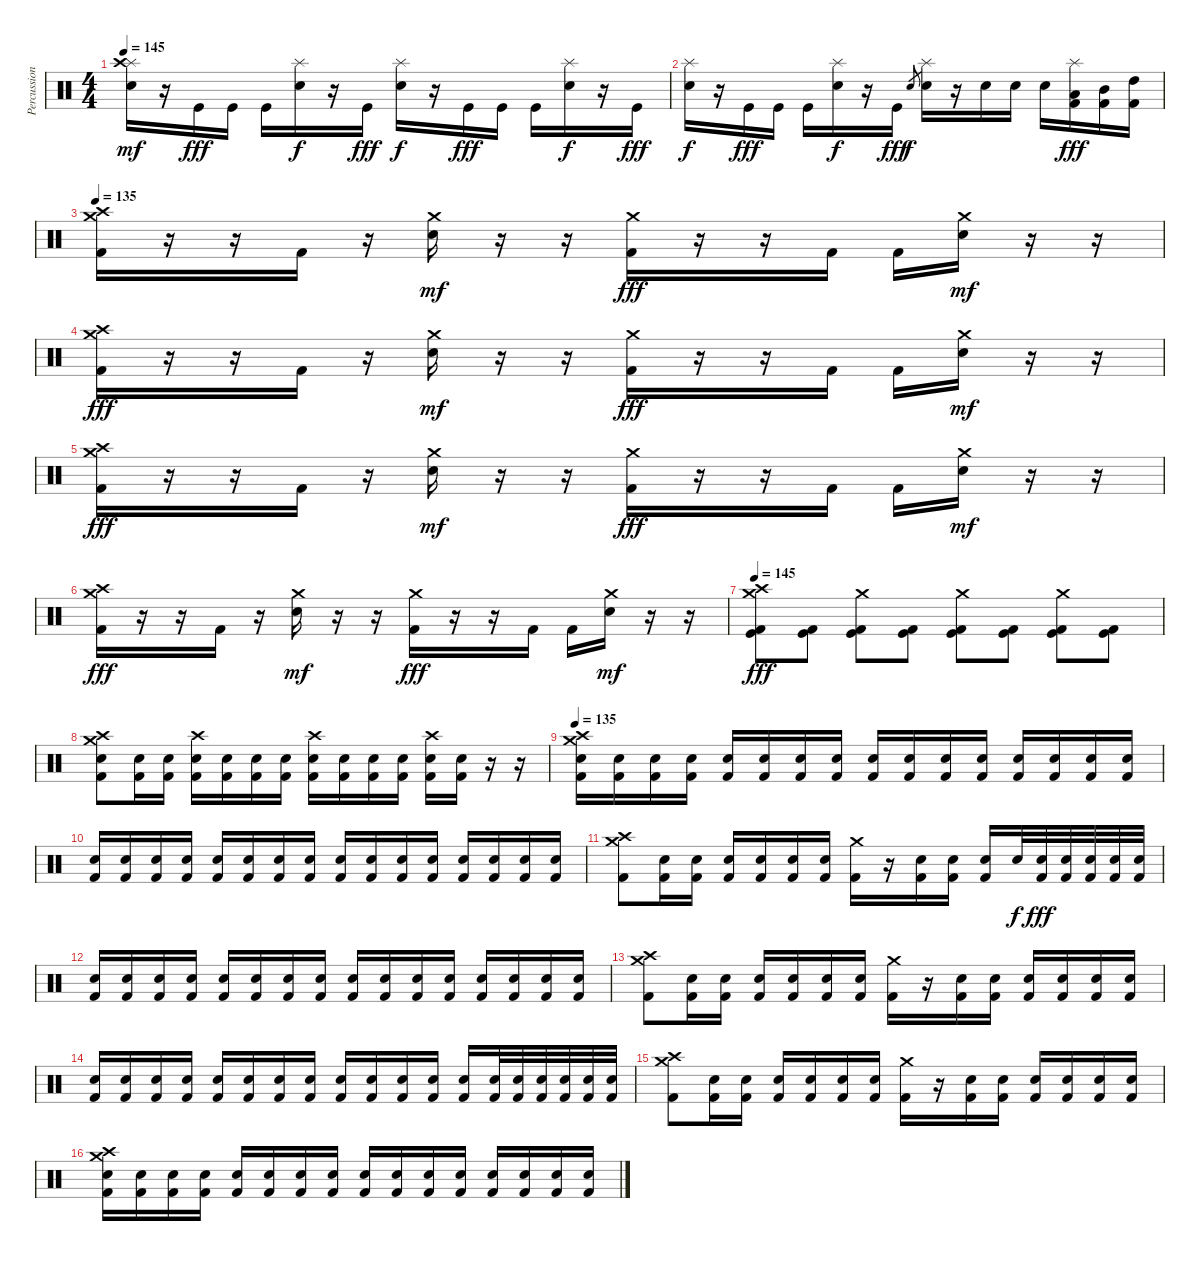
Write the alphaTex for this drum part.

\track ("Percussions" "Percussion") {instrument percussion}
\staff {score}
\articulation defaults
\ts (4 4)
\tempo 145
\clef neutral
\ks c
("Splash (hit)" "Crash high (hit)" "Electric Snare (hit)").16{dy mf} r.16 "Kick (hit)".16{dy fff} "Kick (hit)".16 "Kick (hit)".16 ("Splash (hit)" "Electric Snare (hit)").16{dy f} r.16 "Kick (hit)".16{dy fff} ("Splash (hit)" "Electric Snare (hit)").16{dy f} r.16 "Kick (hit)".16{dy fff} "Kick (hit)".16 "Kick (hit)".16 ("Splash (hit)" "Electric Snare (hit)").16{dy f} r.16 "Kick (hit)".16{dy fff} |
("Splash (hit)" "Electric Snare (hit)").16{dy f} r.16 "Kick (hit)".16{dy fff} "Kick (hit)".16 "Kick (hit)".16 ("Splash (hit)" "Electric Snare (hit)").16{dy f} r.16 "Kick (hit)".16{dy fff} "Electric Snare (hit)".8{gr dy f} ("Splash (hit)" "Electric Snare (hit)").16 r.16 "Electric Snare (hit)".16 "Electric Snare (hit)".16 "Electric Snare (hit)".16 ("Splash (hit)" "Low Tom (hit)" "Kick (hit) 2").16{dy fff} ("Mid Tom (hit)" "Kick (hit) 2").16 ("High Tom (hit)" "Kick (hit) 2").16 |
\tempo 135
("Crash medium (hit)" "Crash high (hit)" "Kick (hit) 2").16 r.16 r.16 "Kick (hit) 2".16 r.16 ("Crash medium (hit)" "Electric Snare (hit)").16{dy mf} r.16 r.16 ("Crash medium (hit)" "Kick (hit) 2").16{dy fff} r.16 r.16 "Kick (hit) 2".16 "Kick (hit) 2".16 ("Crash medium (hit)" "Electric Snare (hit)").16{dy mf} r.16 r.16 |
("Crash medium (hit)" "Crash high (hit)" "Kick (hit) 2").16{dy fff} r.16 r.16 "Kick (hit) 2".16 r.16 ("Crash medium (hit)" "Electric Snare (hit)").16{dy mf} r.16 r.16 ("Crash medium (hit)" "Kick (hit) 2").16{dy fff} r.16 r.16 "Kick (hit) 2".16 "Kick (hit) 2".16 ("Crash medium (hit)" "Electric Snare (hit)").16{dy mf} r.16 r.16 |
("Crash medium (hit)" "Crash high (hit)" "Kick (hit) 2").16{dy fff} r.16 r.16 "Kick (hit) 2".16 r.16 ("Crash medium (hit)" "Electric Snare (hit)").16{dy mf} r.16 r.16 ("Crash medium (hit)" "Kick (hit) 2").16{dy fff} r.16 r.16 "Kick (hit) 2".16 "Kick (hit) 2".16 ("Crash medium (hit)" "Electric Snare (hit)").16{dy mf} r.16 r.16 |
("Crash medium (hit)" "Crash high (hit)" "Kick (hit) 2").16{dy fff} r.16 r.16 "Kick (hit) 2".16 r.16 ("Crash medium (hit)" "Electric Snare (hit)").16{dy mf} r.16 r.16 ("Crash medium (hit)" "Kick (hit) 2").16{dy fff} r.16 r.16 "Kick (hit) 2".16 "Kick (hit) 2".16 ("Crash medium (hit)" "Electric Snare (hit)").16{dy mf} r.16 r.16 |
\tempo 145
("Crash high (hit)" "Crash medium (hit)" "Kick (hit)" "Kick (hit) 2").8{dy fff} ("Kick (hit)" "Kick (hit) 2").8 ("Crash medium (hit)" "Kick (hit)" "Kick (hit) 2").8 ("Kick (hit)" "Kick (hit) 2").8 ("Crash medium (hit)" "Kick (hit)" "Kick (hit) 2").8 ("Kick (hit)" "Kick (hit) 2").8 ("Crash medium (hit)" "Kick (hit)" "Kick (hit) 2").8 ("Kick (hit)" "Kick (hit) 2").8 |
("Crash high (hit)" "Crash medium (hit)" "Electric Snare (hit)" "Kick (hit) 2").8 ("Electric Snare (hit)" "Kick (hit) 2").16 ("Electric Snare (hit)" "Kick (hit) 2").16 ("Crash high (hit)" "Electric Snare (hit)" "Kick (hit) 2").16 ("Electric Snare (hit)" "Kick (hit) 2").16 ("Electric Snare (hit)" "Kick (hit) 2").16 ("Electric Snare (hit)" "Kick (hit) 2").16 ("Crash high (hit)" "Electric Snare (hit)" "Kick (hit) 2").16 ("Electric Snare (hit)" "Kick (hit) 2").16 ("Electric Snare (hit)" "Kick (hit) 2").16 ("Electric Snare (hit)" "Kick (hit) 2").16 ("Crash high (hit)" "Electric Snare (hit)" "Kick (hit) 2").16 ("Electric Snare (hit)" "Kick (hit) 2").16 r.16 r.16 |
\tempo 135
("Crash high (hit)" "Crash medium (hit)" "Electric Snare (hit)" "Kick (hit) 2").16 ("Electric Snare (hit)" "Kick (hit) 2").16 ("Electric Snare (hit)" "Kick (hit) 2").16 ("Electric Snare (hit)" "Kick (hit) 2").16 ("Electric Snare (hit)" "Kick (hit) 2").16 ("Electric Snare (hit)" "Kick (hit) 2").16 ("Electric Snare (hit)" "Kick (hit) 2").16 ("Electric Snare (hit)" "Kick (hit) 2").16 ("Electric Snare (hit)" "Kick (hit) 2").16 ("Electric Snare (hit)" "Kick (hit) 2").16 ("Electric Snare (hit)" "Kick (hit) 2").16 ("Electric Snare (hit)" "Kick (hit) 2").16 ("Electric Snare (hit)" "Kick (hit) 2").16 ("Electric Snare (hit)" "Kick (hit) 2").16 ("Electric Snare (hit)" "Kick (hit) 2").16 ("Electric Snare (hit)" "Kick (hit) 2").16 |
("Electric Snare (hit)" "Kick (hit) 2").16 ("Electric Snare (hit)" "Kick (hit) 2").16 ("Electric Snare (hit)" "Kick (hit) 2").16 ("Electric Snare (hit)" "Kick (hit) 2").16 ("Electric Snare (hit)" "Kick (hit) 2").16 ("Electric Snare (hit)" "Kick (hit) 2").16 ("Electric Snare (hit)" "Kick (hit) 2").16 ("Electric Snare (hit)" "Kick (hit) 2").16 ("Electric Snare (hit)" "Kick (hit) 2").16 ("Electric Snare (hit)" "Kick (hit) 2").16 ("Electric Snare (hit)" "Kick (hit) 2").16 ("Electric Snare (hit)" "Kick (hit) 2").16 ("Electric Snare (hit)" "Kick (hit) 2").16 ("Electric Snare (hit)" "Kick (hit) 2").16 ("Electric Snare (hit)" "Kick (hit) 2").16 ("Electric Snare (hit)" "Kick (hit) 2").16 |
("Crash high (hit)" "Crash medium (hit)" "Kick (hit) 2").8 ("Electric Snare (hit)" "Kick (hit) 2").16 ("Electric Snare (hit)" "Kick (hit) 2").16 ("Electric Snare (hit)" "Kick (hit) 2").16 ("Electric Snare (hit)" "Kick (hit) 2").16 ("Electric Snare (hit)" "Kick (hit) 2").16 ("Electric Snare (hit)" "Kick (hit) 2").16 ("Crash medium (hit)" "Kick (hit) 2").16 r.16 ("Electric Snare (hit)" "Kick (hit) 2").16 ("Electric Snare (hit)" "Kick (hit) 2").16 ("Electric Snare (hit)" "Kick (hit) 2").16 "Electric Snare (hit)".32{dy f} ("Electric Snare (hit)" "Kick (hit) 2").32{dy fff} ("Electric Snare (hit)" "Kick (hit) 2").32 ("Electric Snare (hit)" "Kick (hit) 2").32 ("Electric Snare (hit)" "Kick (hit) 2").32 ("Electric Snare (hit)" "Kick (hit) 2").32 |
("Electric Snare (hit)" "Kick (hit) 2").16 ("Electric Snare (hit)" "Kick (hit) 2").16 ("Electric Snare (hit)" "Kick (hit) 2").16 ("Electric Snare (hit)" "Kick (hit) 2").16 ("Electric Snare (hit)" "Kick (hit) 2").16 ("Electric Snare (hit)" "Kick (hit) 2").16 ("Electric Snare (hit)" "Kick (hit) 2").16 ("Electric Snare (hit)" "Kick (hit) 2").16 ("Electric Snare (hit)" "Kick (hit) 2").16 ("Electric Snare (hit)" "Kick (hit) 2").16 ("Electric Snare (hit)" "Kick (hit) 2").16 ("Electric Snare (hit)" "Kick (hit) 2").16 ("Electric Snare (hit)" "Kick (hit) 2").16 ("Electric Snare (hit)" "Kick (hit) 2").16 ("Electric Snare (hit)" "Kick (hit) 2").16 ("Electric Snare (hit)" "Kick (hit) 2").16 |
("Crash high (hit)" "Crash medium (hit)" "Kick (hit) 2").8 ("Electric Snare (hit)" "Kick (hit) 2").16 ("Electric Snare (hit)" "Kick (hit) 2").16 ("Electric Snare (hit)" "Kick (hit) 2").16 ("Electric Snare (hit)" "Kick (hit) 2").16 ("Electric Snare (hit)" "Kick (hit) 2").16 ("Electric Snare (hit)" "Kick (hit) 2").16 ("Crash medium (hit)" "Kick (hit) 2").16 r.16 ("Electric Snare (hit)" "Kick (hit) 2").16 ("Electric Snare (hit)" "Kick (hit) 2").16 ("Electric Snare (hit)" "Kick (hit) 2").16 ("Electric Snare (hit)" "Kick (hit) 2").16 ("Electric Snare (hit)" "Kick (hit) 2").16 ("Electric Snare (hit)" "Kick (hit) 2").16 |
("Electric Snare (hit)" "Kick (hit) 2").16 ("Electric Snare (hit)" "Kick (hit) 2").16 ("Electric Snare (hit)" "Kick (hit) 2").16 ("Electric Snare (hit)" "Kick (hit) 2").16 ("Electric Snare (hit)" "Kick (hit) 2").16 ("Electric Snare (hit)" "Kick (hit) 2").16 ("Electric Snare (hit)" "Kick (hit) 2").16 ("Electric Snare (hit)" "Kick (hit) 2").16 ("Electric Snare (hit)" "Kick (hit) 2").16 ("Electric Snare (hit)" "Kick (hit) 2").16 ("Electric Snare (hit)" "Kick (hit) 2").16 ("Electric Snare (hit)" "Kick (hit) 2").16 ("Electric Snare (hit)" "Kick (hit) 2").16 ("Electric Snare (hit)" "Kick (hit) 2").32 ("Electric Snare (hit)" "Kick (hit) 2").32 ("Electric Snare (hit)" "Kick (hit) 2").32 ("Electric Snare (hit)" "Kick (hit) 2").32 ("Electric Snare (hit)" "Kick (hit) 2").32 ("Electric Snare (hit)" "Kick (hit) 2").32 |
("Crash high (hit)" "Crash medium (hit)" "Kick (hit) 2").8 ("Electric Snare (hit)" "Kick (hit) 2").16 ("Electric Snare (hit)" "Kick (hit) 2").16 ("Electric Snare (hit)" "Kick (hit) 2").16 ("Electric Snare (hit)" "Kick (hit) 2").16 ("Electric Snare (hit)" "Kick (hit) 2").16 ("Electric Snare (hit)" "Kick (hit) 2").16 ("Crash medium (hit)" "Kick (hit) 2").16 r.16 ("Electric Snare (hit)" "Kick (hit) 2").16 ("Electric Snare (hit)" "Kick (hit) 2").16 ("Electric Snare (hit)" "Kick (hit) 2").16 ("Electric Snare (hit)" "Kick (hit) 2").16 ("Electric Snare (hit)" "Kick (hit) 2").16 ("Electric Snare (hit)" "Kick (hit) 2").16 |
("Crash medium (hit)" "Crash high (hit)" "Electric Snare (hit)" "Kick (hit) 2").16 ("Electric Snare (hit)" "Kick (hit) 2").16 ("Electric Snare (hit)" "Kick (hit) 2").16 ("Electric Snare (hit)" "Kick (hit) 2").16 ("Electric Snare (hit)" "Kick (hit) 2").16 ("Electric Snare (hit)" "Kick (hit) 2").16 ("Electric Snare (hit)" "Kick (hit) 2").16 ("Electric Snare (hit)" "Kick (hit) 2").16 ("Electric Snare (hit)" "Kick (hit) 2").16 ("Electric Snare (hit)" "Kick (hit) 2").16 ("Electric Snare (hit)" "Kick (hit) 2").16 ("Electric Snare (hit)" "Kick (hit) 2").16 ("Electric Snare (hit)" "Kick (hit) 2").16 ("Electric Snare (hit)" "Kick (hit) 2").16 ("Electric Snare (hit)" "Kick (hit) 2").16 ("Electric Snare (hit)" "Kick (hit) 2").16
